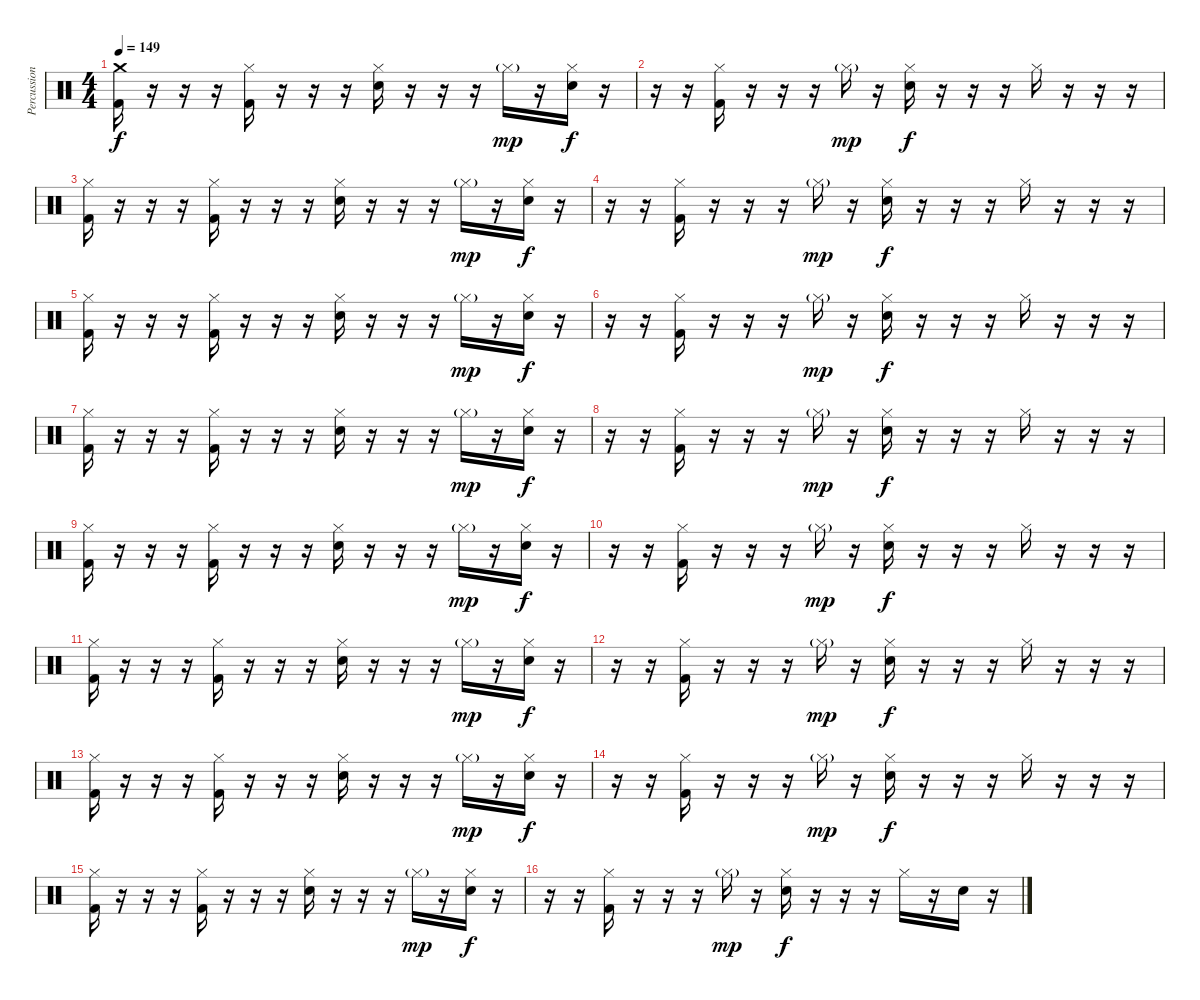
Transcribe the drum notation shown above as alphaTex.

\track ("Percussion" "Percussion") {instrument percussion}
\staff {score}
\articulation defaults
\ts (4 4)
\section ("" "")
\tempo 149
\clef neutral
\ks c
("Crash medium (hit)" "Kick (hit) 2").16{dy f} r.16 r.16 r.16 ("Hi-Hat (closed)" "Kick (hit) 2").16 r.16 r.16 r.16 ("Hi-Hat (closed)" "Electric Snare (hit)").16 r.16 r.16 r.16 "Hi-Hat (closed)"{g}.16{dy mp} r.16 ("Hi-Hat (closed)" "Electric Snare (hit)").16{dy f} r.16 |
r.16 r.16 ("Hi-Hat (closed)" "Kick (hit) 2").16 r.16 r.16 r.16 "Hi-Hat (closed)"{g}.16{dy mp} r.16 ("Hi-Hat (closed)" "Electric Snare (hit)").16{dy f} r.16 r.16 r.16 "Hi-Hat (closed)".16 r.16 r.16 r.16 |
("Hi-Hat (closed)" "Kick (hit) 2").16 r.16 r.16 r.16 ("Hi-Hat (closed)" "Kick (hit) 2").16 r.16 r.16 r.16 ("Hi-Hat (closed)" "Electric Snare (hit)").16 r.16 r.16 r.16 "Hi-Hat (closed)"{g}.16{dy mp} r.16 ("Hi-Hat (closed)" "Electric Snare (hit)").16{dy f} r.16 |
r.16 r.16 ("Hi-Hat (closed)" "Kick (hit) 2").16 r.16 r.16 r.16 "Hi-Hat (closed)"{g}.16{dy mp} r.16 ("Hi-Hat (closed)" "Electric Snare (hit)").16{dy f} r.16 r.16 r.16 "Hi-Hat (closed)".16 r.16 r.16 r.16 |
("Hi-Hat (closed)" "Kick (hit) 2").16 r.16 r.16 r.16 ("Hi-Hat (closed)" "Kick (hit) 2").16 r.16 r.16 r.16 ("Hi-Hat (closed)" "Electric Snare (hit)").16 r.16 r.16 r.16 "Hi-Hat (closed)"{g}.16{dy mp} r.16 ("Hi-Hat (closed)" "Electric Snare (hit)").16{dy f} r.16 |
r.16 r.16 ("Hi-Hat (closed)" "Kick (hit) 2").16 r.16 r.16 r.16 "Hi-Hat (closed)"{g}.16{dy mp} r.16 ("Hi-Hat (closed)" "Electric Snare (hit)").16{dy f} r.16 r.16 r.16 "Hi-Hat (closed)".16 r.16 r.16 r.16 |
("Hi-Hat (closed)" "Kick (hit) 2").16 r.16 r.16 r.16 ("Hi-Hat (closed)" "Kick (hit) 2").16 r.16 r.16 r.16 ("Hi-Hat (closed)" "Electric Snare (hit)").16 r.16 r.16 r.16 "Hi-Hat (closed)"{g}.16{dy mp} r.16 ("Hi-Hat (closed)" "Electric Snare (hit)").16{dy f} r.16 |
r.16 r.16 ("Hi-Hat (closed)" "Kick (hit) 2").16 r.16 r.16 r.16 "Hi-Hat (closed)"{g}.16{dy mp} r.16 ("Hi-Hat (closed)" "Electric Snare (hit)").16{dy f} r.16 r.16 r.16 "Hi-Hat (closed)".16 r.16 r.16 r.16 |
("Hi-Hat (closed)" "Kick (hit) 2").16 r.16 r.16 r.16 ("Hi-Hat (closed)" "Kick (hit) 2").16 r.16 r.16 r.16 ("Hi-Hat (closed)" "Electric Snare (hit)").16 r.16 r.16 r.16 "Hi-Hat (closed)"{g}.16{dy mp} r.16 ("Hi-Hat (closed)" "Electric Snare (hit)").16{dy f} r.16 |
r.16 r.16 ("Hi-Hat (closed)" "Kick (hit) 2").16 r.16 r.16 r.16 "Hi-Hat (closed)"{g}.16{dy mp} r.16 ("Hi-Hat (closed)" "Electric Snare (hit)").16{dy f} r.16 r.16 r.16 "Hi-Hat (closed)".16 r.16 r.16 r.16 |
("Hi-Hat (closed)" "Kick (hit) 2").16 r.16 r.16 r.16 ("Hi-Hat (closed)" "Kick (hit) 2").16 r.16 r.16 r.16 ("Hi-Hat (closed)" "Electric Snare (hit)").16 r.16 r.16 r.16 "Hi-Hat (closed)"{g}.16{dy mp} r.16 ("Hi-Hat (closed)" "Electric Snare (hit)").16{dy f} r.16 |
r.16 r.16 ("Hi-Hat (closed)" "Kick (hit) 2").16 r.16 r.16 r.16 "Hi-Hat (closed)"{g}.16{dy mp} r.16 ("Hi-Hat (closed)" "Electric Snare (hit)").16{dy f} r.16 r.16 r.16 "Hi-Hat (closed)".16 r.16 r.16 r.16 |
("Hi-Hat (closed)" "Kick (hit) 2").16 r.16 r.16 r.16 ("Hi-Hat (closed)" "Kick (hit) 2").16 r.16 r.16 r.16 ("Hi-Hat (closed)" "Electric Snare (hit)").16 r.16 r.16 r.16 "Hi-Hat (closed)"{g}.16{dy mp} r.16 ("Hi-Hat (closed)" "Electric Snare (hit)").16{dy f} r.16 |
r.16 r.16 ("Hi-Hat (closed)" "Kick (hit) 2").16 r.16 r.16 r.16 "Hi-Hat (closed)"{g}.16{dy mp} r.16 ("Hi-Hat (closed)" "Electric Snare (hit)").16{dy f} r.16 r.16 r.16 "Hi-Hat (closed)".16 r.16 r.16 r.16 |
("Hi-Hat (closed)" "Kick (hit) 2").16 r.16 r.16 r.16 ("Hi-Hat (closed)" "Kick (hit) 2").16 r.16 r.16 r.16 ("Hi-Hat (closed)" "Electric Snare (hit)").16 r.16 r.16 r.16 "Hi-Hat (closed)"{g}.16{dy mp} r.16 ("Hi-Hat (closed)" "Electric Snare (hit)").16{dy f} r.16 |
r.16 r.16 ("Hi-Hat (closed)" "Kick (hit) 2").16 r.16 r.16 r.16 "Hi-Hat (closed)"{g}.16{dy mp} r.16 ("Hi-Hat (closed)" "Electric Snare (hit)").16{dy f} r.16 r.16 r.16 "Hi-Hat (closed)".16 r.16 "Electric Snare (hit)".16 r.16
